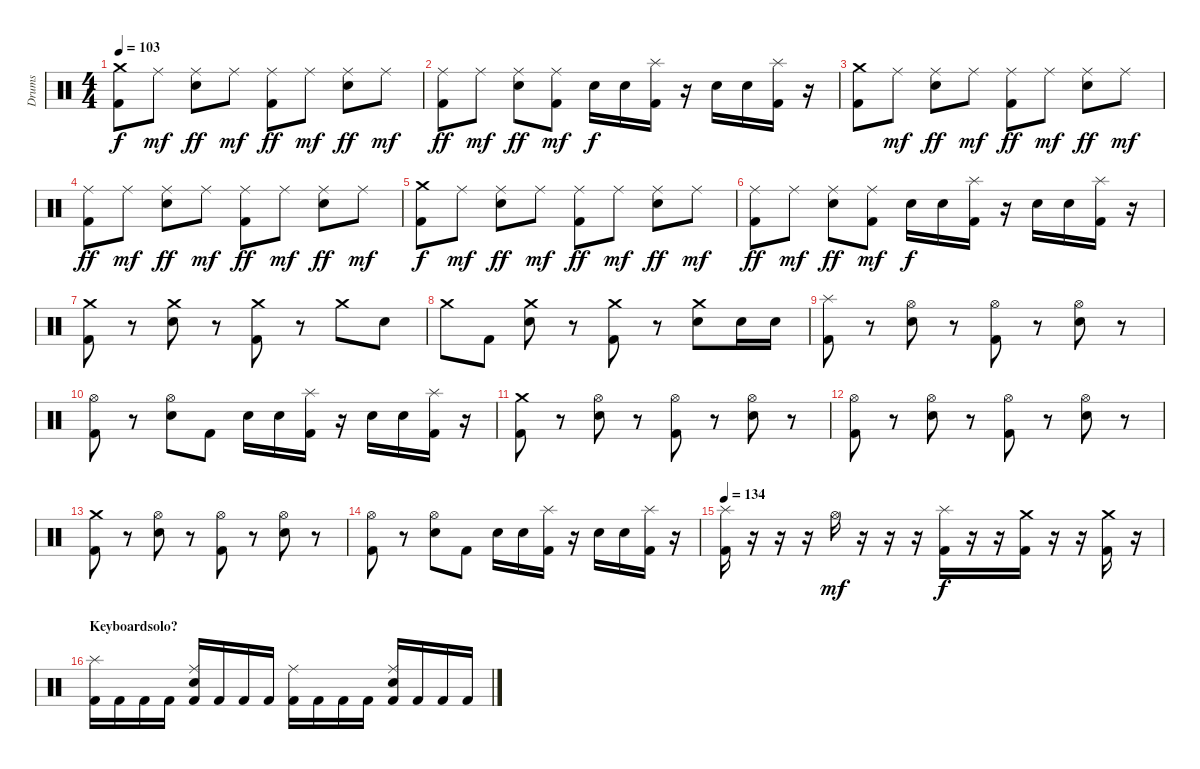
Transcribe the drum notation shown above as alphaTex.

\track ("Drums" "Drums") {instrument percussion}
\staff {score}
\articulation defaults
\ts (4 4)
\tempo 103
\clef neutral
\ks c
("Crash medium (hit)" "Kick (hit) 2").8{dy f} "Ride (middle)".8{dy mf} ("Ride (middle)" "Snare (hit) 2").8{dy ff} "Ride (middle)".8{dy mf} ("Ride (middle)" "Kick (hit) 2").8{dy ff} "Ride (middle)".8{dy mf} ("Ride (middle)" "Snare (hit) 2").8{dy ff} "Ride (middle)".8{dy mf} |
("Ride (middle)" "Kick (hit) 2").8{dy ff} "Ride (middle)".8{dy mf} ("Ride (middle)" "Snare (hit) 2").8{dy ff} ("Ride (middle)" "Kick (hit) 2").8{dy mf} "Snare (hit) 2".16{dy f} "Snare (hit) 2".16 ("Splash (hit)" "Kick (hit) 2").16 r.16 "Snare (hit) 2".16 "Snare (hit) 2".16 ("Splash (hit)" "Kick (hit) 2").16 r.16 |
("Crash medium (hit)" "Kick (hit) 2").8 "Ride (middle)".8{dy mf} ("Ride (middle)" "Snare (hit) 2").8{dy ff} "Ride (middle)".8{dy mf} ("Ride (middle)" "Kick (hit) 2").8{dy ff} "Ride (middle)".8{dy mf} ("Ride (middle)" "Snare (hit) 2").8{dy ff} "Ride (middle)".8{dy mf} |
("Ride (middle)" "Kick (hit) 2").8{dy ff} "Ride (middle)".8{dy mf} ("Ride (middle)" "Snare (hit) 2").8{dy ff} "Ride (middle)".8{dy mf} ("Ride (middle)" "Kick (hit) 2").8{dy ff} "Ride (middle)".8{dy mf} ("Ride (middle)" "Snare (hit) 2").8{dy ff} "Ride (middle)".8{dy mf} |
("Crash medium (hit)" "Kick (hit) 2").8{dy f} "Ride (middle)".8{dy mf} ("Ride (middle)" "Snare (hit) 2").8{dy ff} "Ride (middle)".8{dy mf} ("Ride (middle)" "Kick (hit) 2").8{dy ff} "Ride (middle)".8{dy mf} ("Ride (middle)" "Snare (hit) 2").8{dy ff} "Ride (middle)".8{dy mf} |
("Ride (middle)" "Kick (hit) 2").8{dy ff} "Ride (middle)".8{dy mf} ("Ride (middle)" "Snare (hit) 2").8{dy ff} ("Ride (middle)" "Kick (hit) 2").8{dy mf} "Snare (hit) 2".16{dy f} "Snare (hit) 2".16 ("Splash (hit)" "Kick (hit) 2").16 r.16 "Snare (hit) 2".16 "Snare (hit) 2".16 ("Splash (hit)" "Kick (hit) 2").16 r.16 |
("Crash medium (hit)" "Kick (hit) 2").8 r.8 ("Crash medium (hit)" "Snare (hit) 2").8 r.8 ("Crash medium (hit)" "Kick (hit) 2").8 r.8 "Crash medium (hit)".8 "Snare (hit) 2".8 |
"Crash medium (hit)".8 "Kick (hit) 2".8 ("Crash medium (hit)" "Snare (hit) 2").8 r.8 ("Crash medium (hit)" "Kick (hit) 2").8 r.8 ("Crash medium (hit)" "Snare (hit) 2").8 "Snare (hit) 2".16 "Snare (hit) 2".16 |
("Splash (hit)" "Kick (hit) 2").8 r.8 ("Hi-Hat (open)" "Snare (hit) 2").8 r.8 ("Hi-Hat (open)" "Kick (hit) 2").8 r.8 ("Hi-Hat (open)" "Snare (hit) 2").8 r.8 |
("Hi-Hat (open)" "Kick (hit) 2").8 r.8 ("Hi-Hat (open)" "Snare (hit) 2").8 "Kick (hit) 2".8 "Snare (hit) 2".16 "Snare (hit) 2".16 ("Splash (hit)" "Kick (hit) 2").16 r.16 "Snare (hit) 2".16 "Snare (hit) 2".16 ("Splash (hit)" "Kick (hit) 2").16 r.16 |
("Crash medium (hit)" "Kick (hit) 2").8 r.8 ("Hi-Hat (open)" "Snare (hit) 2").8 r.8 ("Hi-Hat (open)" "Kick (hit) 2").8 r.8 ("Hi-Hat (open)" "Snare (hit) 2").8 r.8 |
("Hi-Hat (open)" "Kick (hit) 2").8 r.8 ("Hi-Hat (open)" "Snare (hit) 2").8 r.8 ("Hi-Hat (open)" "Kick (hit) 2").8 r.8 ("Hi-Hat (open)" "Snare (hit) 2").8 r.8 |
("Crash medium (hit)" "Kick (hit) 2").8 r.8 ("Hi-Hat (open)" "Snare (hit) 2").8 r.8 ("Hi-Hat (open)" "Kick (hit) 2").8 r.8 ("Hi-Hat (open)" "Snare (hit) 2").8 r.8 |
("Hi-Hat (open)" "Kick (hit) 2").8 r.8 ("Hi-Hat (open)" "Snare (hit) 2").8 "Kick (hit) 2".8 "Snare (hit) 2".16 "Snare (hit) 2".16 ("Splash (hit)" "Kick (hit) 2").16 r.16 "Snare (hit) 2".16 "Snare (hit) 2".16 ("Splash (hit)" "Kick (hit) 2").16 r.16 |
\tempo 134
("Splash (hit)" "Kick (hit) 2").16 r.16 r.16 r.16 "Hi-Hat (open)".16{dy mf} r.16 r.16 r.16 ("Splash (hit)" "Kick (hit) 2").16{dy f} r.16 r.16 ("Crash medium (hit)" "Kick (hit) 2").16 r.16 r.16 ("Crash medium (hit)" "Kick (hit) 2").16 r.16 |
\section ("" "Keyboardsolo?")
("Splash (hit)" "Kick (hit) 2").16 "Kick (hit) 2".16 "Kick (hit) 2".16 "Kick (hit) 2".16 ("Ride (middle)" "Snare (hit) 2" "Kick (hit) 2").16 "Kick (hit) 2".16 "Kick (hit) 2".16 "Kick (hit) 2".16 ("Ride (middle)" "Kick (hit) 2").16 "Kick (hit) 2".16 "Kick (hit) 2".16 "Kick (hit) 2".16 ("Ride (middle)" "Snare (hit) 2" "Kick (hit) 2").16 "Kick (hit) 2".16 "Kick (hit) 2".16 "Kick (hit) 2".16
